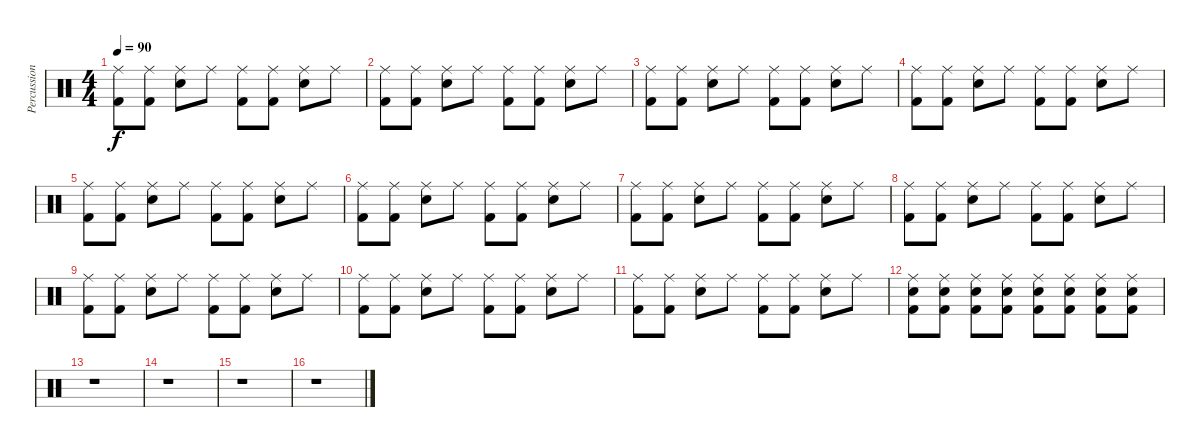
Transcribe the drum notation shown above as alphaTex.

\track ("Percussion" "Percussion") {instrument percussion}
\staff {score}
\articulation defaults
\ts (4 4)
\tempo 90
\clef neutral
\ks c
("Ride (middle)" "Kick (hit) 2").8{dy f} ("Ride (middle)" "Kick (hit) 2").8 ("Ride (middle)" "Snare (hit) 2").8 "Ride (middle)".8 ("Ride (middle)" "Kick (hit) 2").8 ("Ride (middle)" "Kick (hit) 2").8 ("Ride (middle)" "Snare (hit) 2").8 "Ride (middle)".8 |
("Ride (middle)" "Kick (hit) 2").8 ("Ride (middle)" "Kick (hit) 2").8 ("Ride (middle)" "Snare (hit) 2").8 "Ride (middle)".8 ("Ride (middle)" "Kick (hit) 2").8 ("Ride (middle)" "Kick (hit) 2").8 ("Ride (middle)" "Snare (hit) 2").8 "Ride (middle)".8 |
("Ride (middle)" "Kick (hit) 2").8 ("Ride (middle)" "Kick (hit) 2").8 ("Ride (middle)" "Snare (hit) 2").8 "Ride (middle)".8 ("Ride (middle)" "Kick (hit) 2").8 ("Ride (middle)" "Kick (hit) 2").8 ("Ride (middle)" "Snare (hit) 2").8 "Ride (middle)".8 |
("Ride (middle)" "Kick (hit) 2").8 ("Ride (middle)" "Kick (hit) 2").8 ("Ride (middle)" "Snare (hit) 2").8 "Ride (middle)".8 ("Ride (middle)" "Kick (hit) 2").8 ("Ride (middle)" "Kick (hit) 2").8 ("Ride (middle)" "Snare (hit) 2").8 "Ride (middle)".8 |
("Ride (middle)" "Kick (hit) 2").8 ("Ride (middle)" "Kick (hit) 2").8 ("Ride (middle)" "Snare (hit) 2").8 "Ride (middle)".8 ("Ride (middle)" "Kick (hit) 2").8 ("Ride (middle)" "Kick (hit) 2").8 ("Ride (middle)" "Snare (hit) 2").8 "Ride (middle)".8 |
("Ride (middle)" "Kick (hit) 2").8 ("Ride (middle)" "Kick (hit) 2").8 ("Ride (middle)" "Snare (hit) 2").8 "Ride (middle)".8 ("Ride (middle)" "Kick (hit) 2").8 ("Ride (middle)" "Kick (hit) 2").8 ("Ride (middle)" "Snare (hit) 2").8 "Ride (middle)".8 |
("Ride (middle)" "Kick (hit) 2").8 ("Ride (middle)" "Kick (hit) 2").8 ("Ride (middle)" "Snare (hit) 2").8 "Ride (middle)".8 ("Ride (middle)" "Kick (hit) 2").8 ("Ride (middle)" "Kick (hit) 2").8 ("Ride (middle)" "Snare (hit) 2").8 "Ride (middle)".8 |
("Ride (middle)" "Kick (hit) 2").8 ("Ride (middle)" "Kick (hit) 2").8 ("Ride (middle)" "Snare (hit) 2").8 "Ride (middle)".8 ("Ride (middle)" "Kick (hit) 2").8 ("Ride (middle)" "Kick (hit) 2").8 ("Ride (middle)" "Snare (hit) 2").8 "Ride (middle)".8 |
("Ride (middle)" "Kick (hit) 2").8 ("Ride (middle)" "Kick (hit) 2").8 ("Ride (middle)" "Snare (hit) 2").8 "Ride (middle)".8 ("Ride (middle)" "Kick (hit) 2").8 ("Ride (middle)" "Kick (hit) 2").8 ("Ride (middle)" "Snare (hit) 2").8 "Ride (middle)".8 |
("Ride (middle)" "Kick (hit) 2").8 ("Ride (middle)" "Kick (hit) 2").8 ("Ride (middle)" "Snare (hit) 2").8 "Ride (middle)".8 ("Ride (middle)" "Kick (hit) 2").8 ("Ride (middle)" "Kick (hit) 2").8 ("Ride (middle)" "Snare (hit) 2").8 "Ride (middle)".8 |
("Ride (middle)" "Kick (hit) 2").8 ("Ride (middle)" "Kick (hit) 2").8 ("Ride (middle)" "Snare (hit) 2").8 "Ride (middle)".8 ("Ride (middle)" "Kick (hit) 2").8 ("Ride (middle)" "Kick (hit) 2").8 ("Ride (middle)" "Snare (hit) 2").8 "Ride (middle)".8 |
("Ride (middle)" "Snare (hit) 2" "Kick (hit) 2").8 ("Ride (middle)" "Snare (hit) 2" "Kick (hit) 2").8 ("Ride (middle)" "Snare (hit) 2" "Kick (hit) 2").8 ("Ride (middle)" "Snare (hit) 2" "Kick (hit) 2").8 ("Ride (middle)" "Snare (hit) 2" "Kick (hit) 2").8 ("Ride (middle)" "Snare (hit) 2" "Kick (hit) 2").8 ("Ride (middle)" "Snare (hit) 2" "Kick (hit) 2").8 ("Ride (middle)" "Snare (hit) 2" "Kick (hit) 2").8 |
r.1 |
r.1 |
r.1 |
r.1
